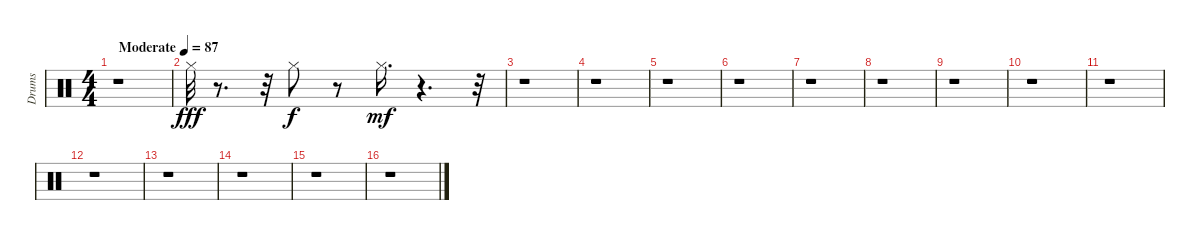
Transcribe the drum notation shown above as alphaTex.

\track ("Drums   " "Drums   ") {instrument percussion}
\staff {score}
\articulation defaults
\ts (4 4)
\tempo (87 "Moderate")
\clef neutral
\ks c
r.1{dy fff} |
"Hi-Hat (closed)".32 r.8{d} r.32 "Hi-Hat (closed)".8{dy f} r.8 "Hi-Hat (closed)".16{d dy mf} r.4{d} r.32 |
r.1 |
r.1 |
r.1 |
r.1 |
r.1 |
r.1 |
r.1 |
r.1 |
r.1 |
r.1 |
r.1 |
r.1 |
r.1 |
r.1
